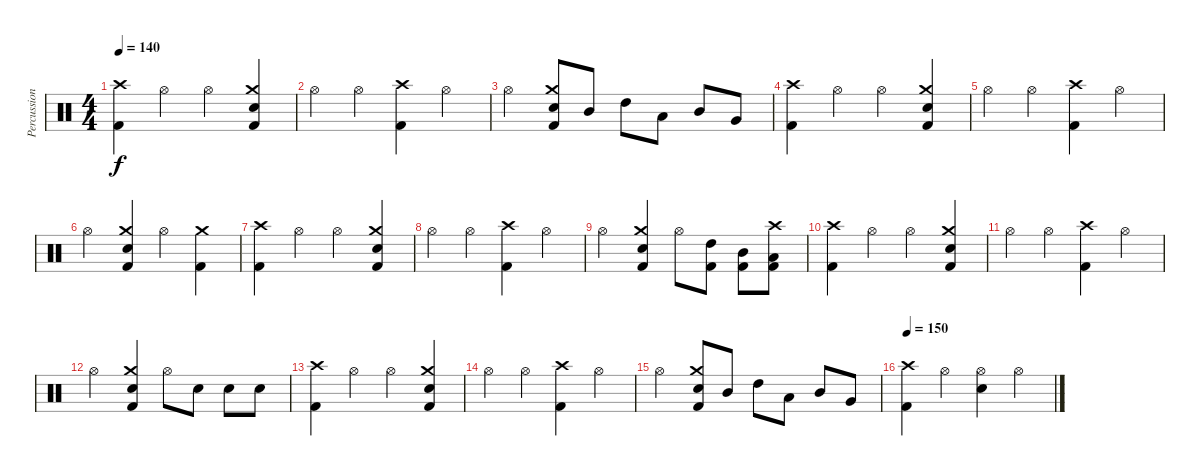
\track ("Percussion" "Percussion") {instrument percussion}
\staff {score}
\articulation defaults
\ts (4 4)
\tempo 140
\clef neutral
\ks c
("Crash high (hit)" "Kick (hit) 2").4{dy f} "Hi-Hat (open)".4 "Hi-Hat (open)".4 ("Crash medium (hit)" "Snare (hit) 2" "Kick (hit) 2").4 |
"Hi-Hat (open)".4 "Hi-Hat (open)".4 ("Crash high (hit)" "Kick (hit) 2").4 "Hi-Hat (open)".4 |
"Hi-Hat (open)".4 ("Crash medium (hit)" "Snare (hit) 2" "Kick (hit) 2").8 "Mid Tom (hit)".8 "High Tom (hit)".8 "Low Tom (hit)".8 "Mid Tom (hit)".8 "Very Low Tom (hit)".8 |
("Crash high (hit)" "Kick (hit) 2").4 "Hi-Hat (open)".4 "Hi-Hat (open)".4 ("Crash medium (hit)" "Snare (hit) 2" "Kick (hit) 2").4 |
"Hi-Hat (open)".4 "Hi-Hat (open)".4 ("Crash high (hit)" "Kick (hit) 2").4 "Hi-Hat (open)".4 |
"Hi-Hat (open)".4 ("Crash medium (hit)" "Snare (hit) 2" "Kick (hit) 2").4 "Hi-Hat (open)".4 ("Crash medium (hit)" "Kick (hit) 2").4 |
("Crash high (hit)" "Kick (hit) 2").4 "Hi-Hat (open)".4 "Hi-Hat (open)".4 ("Crash medium (hit)" "Snare (hit) 2" "Kick (hit) 2").4 |
"Hi-Hat (open)".4 "Hi-Hat (open)".4 ("Crash high (hit)" "Kick (hit) 2").4 "Hi-Hat (open)".4 |
"Hi-Hat (open)".4 ("Crash medium (hit)" "Snare (hit) 2" "Kick (hit) 2").4 "Hi-Hat (open)".8 ("High Tom (hit)" "Kick (hit) 2").8 ("Mid Tom (hit)" "Kick (hit) 2").8 ("Crash high (hit)" "Low Tom (hit)" "Kick (hit) 2").8 |
("Crash high (hit)" "Kick (hit) 2").4 "Hi-Hat (open)".4 "Hi-Hat (open)".4 ("Crash medium (hit)" "Snare (hit) 2" "Kick (hit) 2").4 |
"Hi-Hat (open)".4 "Hi-Hat (open)".4 ("Crash high (hit)" "Kick (hit) 2").4 "Hi-Hat (open)".4 |
"Hi-Hat (open)".4 ("Crash medium (hit)" "Snare (hit) 2" "Kick (hit) 2").4 "Hi-Hat (open)".8 "Snare (hit) 2".8 "Snare (hit) 2".8 "Snare (hit) 2".8 |
("Crash high (hit)" "Kick (hit) 2").4 "Hi-Hat (open)".4 "Hi-Hat (open)".4 ("Crash medium (hit)" "Snare (hit) 2" "Kick (hit) 2").4 |
"Hi-Hat (open)".4 "Hi-Hat (open)".4 ("Crash high (hit)" "Kick (hit) 2").4 "Hi-Hat (open)".4 |
"Hi-Hat (open)".4 ("Crash medium (hit)" "Snare (hit) 2" "Kick (hit) 2").8 "Mid Tom (hit)".8 "High Tom (hit)".8 "Low Tom (hit)".8 "Mid Tom (hit)".8 "Very Low Tom (hit)".8 |
\tempo 150
("Crash high (hit)" "Kick (hit) 2").4 "Hi-Hat (open)".4 ("Hi-Hat (open)" "Snare (hit) 2").4 "Hi-Hat (open)".4
